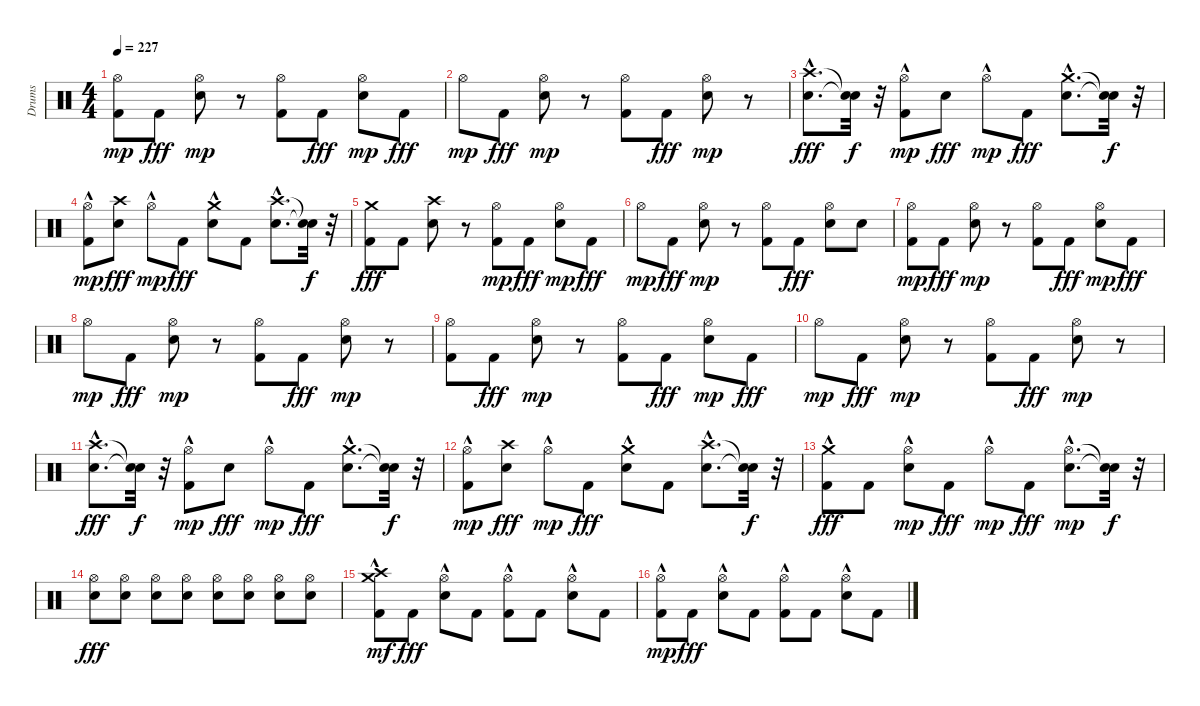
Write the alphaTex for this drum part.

\track ("Drums" "Drums") {instrument percussion}
\staff {score}
\articulation defaults
\ts (4 4)
\tempo 227
\clef neutral
\ks c
("Kick (hit) 2" "Hi-Hat (open)").8{dy mp} "Kick (hit) 2".8{dy fff} ("Snare (hit) 2" "Hi-Hat (open)").8{dy mp} r.8 ("Kick (hit) 2" "Hi-Hat (open)").8 "Kick (hit) 2".8{dy fff} ("Snare (hit) 2" "Hi-Hat (open)").8{dy mp} "Kick (hit) 2".8{dy fff} |
"Hi-Hat (open)".8{dy mp} "Kick (hit) 2".8{dy fff} ("Snare (hit) 2" "Hi-Hat (open)").8{dy mp} r.8 ("Kick (hit) 2" "Hi-Hat (open)").8 "Kick (hit) 2".8{dy fff} ("Snare (hit) 2" "Hi-Hat (open)").8{dy mp} r.8 |
("Snare (hit) 2"{hac} "Crash high (hit)"{hac}).8{d dy fff} ("Snare (hit)"{t} "Snare (hit)"{t}).32{dy f} r.32 ("Kick (hit) 2"{hac} "Hi-Hat (open)").8{dy mp} "Snare (hit) 2".8{dy fff} "Hi-Hat (open)"{hac}.8{dy mp} "Kick (hit) 2".8{dy fff} ("Snare (hit) 2"{hac} "Crash medium (hit)"{hac}).8{d} ("Snare (hit)"{t} "Snare (hit)"{t}).32{dy f} r.32 |
("Kick (hit) 2"{hac} "Hi-Hat (open)").8{dy mp} ("Snare (hit) 2" "Crash high (hit)").8{dy fff} "Hi-Hat (open)"{hac}.8{dy mp} "Kick (hit) 2".8{dy fff} ("Snare (hit) 2"{hac} "Crash medium (hit)"{hac}).8 "Kick (hit) 2".8 ("Snare (hit) 2"{hac} "Crash high (hit)"{hac}).8{d} ("Snare (hit)"{t} "Snare (hit)"{t}).32{dy f} r.32 |
("Kick (hit) 2" "Crash medium (hit)").8{dy fff} "Kick (hit) 2".8 ("Snare (hit) 2" "Crash high (hit)").8 r.8 ("Kick (hit) 2" "Hi-Hat (open)").8{dy mp} "Kick (hit) 2".8{dy fff} ("Snare (hit) 2" "Hi-Hat (open)").8{dy mp} "Kick (hit) 2".8{dy fff} |
"Hi-Hat (open)".8{dy mp} "Kick (hit) 2".8{dy fff} ("Snare (hit) 2" "Hi-Hat (open)").8{dy mp} r.8 ("Kick (hit) 2" "Hi-Hat (open)").8 "Kick (hit) 2".8{dy fff} ("Hi-Hat (open)" "Snare (hit) 2").8 "Snare (hit) 2".8 |
("Kick (hit) 2" "Hi-Hat (open)").8{dy mp} "Kick (hit) 2".8{dy fff} ("Snare (hit) 2" "Hi-Hat (open)").8{dy mp} r.8 ("Kick (hit) 2" "Hi-Hat (open)").8 "Kick (hit) 2".8{dy fff} ("Snare (hit) 2" "Hi-Hat (open)").8{dy mp} "Kick (hit) 2".8{dy fff} |
"Hi-Hat (open)".8{dy mp} "Kick (hit) 2".8{dy fff} ("Snare (hit) 2" "Hi-Hat (open)").8{dy mp} r.8 ("Kick (hit) 2" "Hi-Hat (open)").8 "Kick (hit) 2".8{dy fff} ("Snare (hit) 2" "Hi-Hat (open)").8{dy mp} r.8 |
("Kick (hit) 2" "Hi-Hat (open)").8 "Kick (hit) 2".8{dy fff} ("Snare (hit) 2" "Hi-Hat (open)").8{dy mp} r.8 ("Kick (hit) 2" "Hi-Hat (open)").8 "Kick (hit) 2".8{dy fff} ("Snare (hit) 2" "Hi-Hat (open)").8{dy mp} "Kick (hit) 2".8{dy fff} |
"Hi-Hat (open)".8{dy mp} "Kick (hit) 2".8{dy fff} ("Snare (hit) 2" "Hi-Hat (open)").8{dy mp} r.8 ("Kick (hit) 2" "Hi-Hat (open)").8 "Kick (hit) 2".8{dy fff} ("Snare (hit) 2" "Hi-Hat (open)").8{dy mp} r.8 |
("Snare (hit) 2"{hac} "Crash high (hit)"{hac}).8{d dy fff} ("Snare (hit)"{t} "Snare (hit)"{t}).32{dy f} r.32 ("Kick (hit) 2"{hac} "Hi-Hat (open)").8{dy mp} "Snare (hit) 2".8{dy fff} "Hi-Hat (open)"{hac}.8{dy mp} "Kick (hit) 2".8{dy fff} ("Snare (hit) 2"{hac} "Crash medium (hit)"{hac}).8{d} ("Snare (hit)"{t} "Snare (hit)"{t}).32{dy f} r.32 |
("Kick (hit) 2"{hac} "Hi-Hat (open)").8{dy mp} ("Snare (hit) 2" "Crash high (hit)").8{dy fff} "Hi-Hat (open)"{hac}.8{dy mp} "Kick (hit) 2".8{dy fff} ("Snare (hit) 2"{hac} "Crash medium (hit)"{hac}).8 "Kick (hit) 2".8 ("Snare (hit) 2"{hac} "Crash high (hit)"{hac}).8{d} ("Snare (hit)"{t} "Snare (hit)"{t}).32{dy f} r.32 |
("Crash medium (hit)"{hac} "Kick (hit) 2").8{dy fff} "Kick (hit) 2".8 ("Snare (hit) 2"{hac} "Hi-Hat (open)"{hac}).8{dy mp} "Kick (hit) 2".8{dy fff} "Hi-Hat (open)"{hac}.8{dy mp} "Kick (hit) 2".8{dy fff} ("Snare (hit) 2"{hac} "Hi-Hat (open)"{hac}).8{d dy mp} ("Snare (hit)"{t} "Snare (hit)"{t}).32{dy f} r.32 |
("Snare (hit) 2" "Hi-Hat (open)").8{dy fff} ("Snare (hit) 2" "Hi-Hat (open)").8 ("Snare (hit) 2" "Hi-Hat (open)").8 ("Snare (hit) 2" "Hi-Hat (open)").8 ("Snare (hit) 2" "Hi-Hat (open)").8 ("Snare (hit) 2" "Hi-Hat (open)").8 ("Snare (hit) 2" "Hi-Hat (open)").8 ("Snare (hit) 2" "Hi-Hat (open)").8 |
("Kick (hit) 2" "Crash high (hit)"{hac} "Crash medium (hit)"{hac}).8{dy mf} "Kick (hit) 2".8{dy fff} ("Hi-Hat (open)"{hac} "Snare (hit) 2"{hac}).8 "Kick (hit) 2".8 ("Hi-Hat (open)"{hac} "Kick (hit) 2").8 "Kick (hit) 2".8 ("Hi-Hat (open)"{hac} "Snare (hit) 2"{hac}).8 "Kick (hit) 2".8 |
("Kick (hit) 2" "Hi-Hat (open)"{hac}).8{dy mp} "Kick (hit) 2".8{dy fff} ("Hi-Hat (open)"{hac} "Snare (hit) 2"{hac}).8 "Kick (hit) 2".8 ("Hi-Hat (open)"{hac} "Kick (hit) 2").8 "Kick (hit) 2".8 ("Hi-Hat (open)"{hac} "Snare (hit) 2"{hac}).8 "Kick (hit) 2".8
